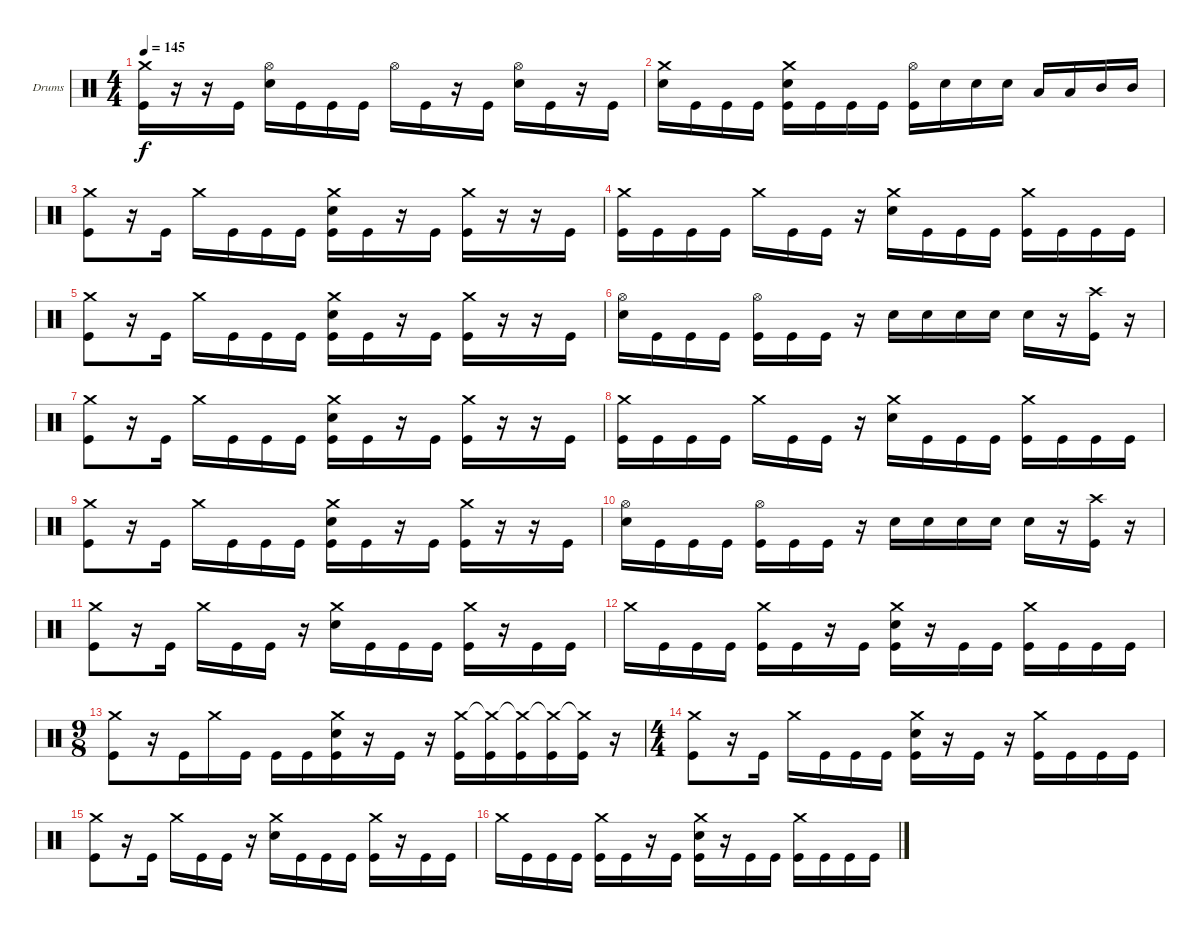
\defaultSystemsLayout 4
\bracketExtendMode groupsimilarinstruments
\firstSystemTrackNameOrientation horizontal
\otherSystemsTrackNameOrientation horizontal
\track ("Moe Carlson" "Drums") {instrument percussion}
\staff {score}
\articulation defaults
\ts (4 4)
\tempo 145
\clef neutral
\ks c
("Crash medium (hit)" "Kick (hit)").16{dy f} r.16 r.16 "Kick (hit)".16 ("Snare (hit) 2" "Hi-Hat (open)").16 "Kick (hit)".16 "Kick (hit)".16 "Kick (hit)".16 "Hi-Hat (open)".16 "Kick (hit)".16 r.16 "Kick (hit)".16 ("Snare (hit) 2" "Hi-Hat (open)").16 "Kick (hit)".16 r.16 "Kick (hit)".16 |
("Crash medium (hit)" "Snare (hit) 2").16 "Kick (hit)".16 "Kick (hit)".16 "Kick (hit)".16 ("Kick (hit)" "Snare (hit) 2" "Crash medium (hit)").16 "Kick (hit)".16 "Kick (hit)".16 "Kick (hit)".16 ("Kick (hit)" "Hi-Hat (open)").16 "Snare (hit) 2".16 "Snare (hit) 2".16 "Snare (hit) 2".16 "Low Tom (hit)".16 "Low Tom (hit)".16 "Mid Tom (hit)".16 "Mid Tom (hit)".16 |
("Crash medium (hit)" "Kick (hit)").8 r.16 "Kick (hit)".16 "Crash medium (hit)".16 "Kick (hit)".16 "Kick (hit)".16 "Kick (hit)".16 ("Kick (hit)" "Crash medium (hit)" "Snare (hit) 2").16 "Kick (hit)".16 r.16 "Kick (hit)".16 ("Kick (hit)" "Crash medium (hit)").16 r.16 r.16 "Kick (hit)".16 |
("Kick (hit)" "Crash medium (hit)").16 "Kick (hit)".16 "Kick (hit)".16 "Kick (hit)".16 "Crash medium (hit)".16 "Kick (hit)".16 "Kick (hit)".16 r.16 ("Snare (hit) 2" "Crash medium (hit)").16 "Kick (hit)".16 "Kick (hit)".16 "Kick (hit)".16 ("Kick (hit)" "Crash medium (hit)").16 "Kick (hit)".16 "Kick (hit)".16 "Kick (hit)".16 |
("Crash medium (hit)" "Kick (hit)").8 r.16 "Kick (hit)".16 "Crash medium (hit)".16 "Kick (hit)".16 "Kick (hit)".16 "Kick (hit)".16 ("Kick (hit)" "Crash medium (hit)" "Snare (hit) 2").16 "Kick (hit)".16 r.16 "Kick (hit)".16 ("Kick (hit)" "Crash medium (hit)").16 r.16 r.16 "Kick (hit)".16 |
("Hi-Hat (open)" "Snare (hit) 2").16 "Kick (hit)".16 "Kick (hit)".16 "Kick (hit)".16 ("Kick (hit)" "Hi-Hat (open)").16 "Kick (hit)".16 "Kick (hit)".16 r.16 "Snare (hit) 2".16 "Snare (hit) 2".16 "Snare (hit) 2".16 "Snare (hit) 2".16 "Snare (hit) 2".16 r.16 ("Crash high (hit)" "Kick (hit)").16 r.16 |
("Crash medium (hit)" "Kick (hit)").8 r.16 "Kick (hit)".16 "Crash medium (hit)".16 "Kick (hit)".16 "Kick (hit)".16 "Kick (hit)".16 ("Kick (hit)" "Crash medium (hit)" "Snare (hit) 2").16 "Kick (hit)".16 r.16 "Kick (hit)".16 ("Kick (hit)" "Crash medium (hit)").16 r.16 r.16 "Kick (hit)".16 |
("Kick (hit)" "Crash medium (hit)").16 "Kick (hit)".16 "Kick (hit)".16 "Kick (hit)".16 "Crash medium (hit)".16 "Kick (hit)".16 "Kick (hit)".16 r.16 ("Snare (hit) 2" "Crash medium (hit)").16 "Kick (hit)".16 "Kick (hit)".16 "Kick (hit)".16 ("Kick (hit)" "Crash medium (hit)").16 "Kick (hit)".16 "Kick (hit)".16 "Kick (hit)".16 |
("Crash medium (hit)" "Kick (hit)").8 r.16 "Kick (hit)".16 "Crash medium (hit)".16 "Kick (hit)".16 "Kick (hit)".16 "Kick (hit)".16 ("Kick (hit)" "Crash medium (hit)" "Snare (hit) 2").16 "Kick (hit)".16 r.16 "Kick (hit)".16 ("Kick (hit)" "Crash medium (hit)").16 r.16 r.16 "Kick (hit)".16 |
("Hi-Hat (open)" "Snare (hit) 2").16 "Kick (hit)".16 "Kick (hit)".16 "Kick (hit)".16 ("Kick (hit)" "Hi-Hat (open)").16 "Kick (hit)".16 "Kick (hit)".16 r.16 "Snare (hit) 2".16 "Snare (hit) 2".16 "Snare (hit) 2".16 "Snare (hit) 2".16 "Snare (hit) 2".16 r.16 ("Crash high (hit)" "Kick (hit)").16 r.16 |
("Crash medium (hit)" "Kick (hit)").8 r.16 "Kick (hit)".16 "Crash medium (hit)".16 "Kick (hit)".16 "Kick (hit)".16 r.16 ("Snare (hit) 2" "Crash medium (hit)").16 "Kick (hit)".16 "Kick (hit)".16 "Kick (hit)".16 ("Kick (hit)" "Crash medium (hit)").16 r.16 "Kick (hit)".16 "Kick (hit)".16 |
"Crash medium (hit)".16 "Kick (hit)".16 "Kick (hit)".16 "Kick (hit)".16 ("Kick (hit)" "Crash medium (hit)").16 "Kick (hit)".16 r.16 "Kick (hit)".16 ("Kick (hit)" "Snare (hit) 2" "Crash medium (hit)").16 r.16 "Kick (hit)".16 "Kick (hit)".16 ("Kick (hit)" "Crash medium (hit)").16 "Kick (hit)".16 "Kick (hit)".16 "Kick (hit)".16 |
\ts (9 8)
("Kick (hit)" "Crash medium (hit)").8 r.16 "Kick (hit)".16 "Crash medium (hit)".16 "Kick (hit)".16 "Kick (hit)".16 "Kick (hit)".16 ("Kick (hit)" "Snare (hit) 2" "Crash medium (hit)").16 r.16 "Kick (hit)".16 r.16 ("Kick (hit)" "Crash medium (hit)").16 ("Kick (hit)" "Crash medium (hit)"{t}).16 ("Kick (hit)" "Crash medium (hit)"{t}).16 ("Kick (hit)" "Crash medium (hit)"{t}).16 ("Kick (hit)" "Crash medium (hit)"{t}).16 r.16 |
\ts (4 4)
("Crash medium (hit)" "Kick (hit)").8 r.16 "Kick (hit)".16 "Crash medium (hit)".16 "Kick (hit)".16 "Kick (hit)".16 "Kick (hit)".16 ("Kick (hit)" "Snare (hit) 2" "Crash medium (hit)").16 r.16 "Kick (hit)".16 r.16 ("Kick (hit)" "Crash medium (hit)").16 "Kick (hit)".16 "Kick (hit)".16 "Kick (hit)".16 |
("Kick (hit)" "Crash medium (hit)").8 r.16 "Kick (hit)".16 "Crash medium (hit)".16 "Kick (hit)".16 "Kick (hit)".16 r.16 ("Snare (hit) 2" "Crash medium (hit)").16 "Kick (hit)".16 "Kick (hit)".16 "Kick (hit)".16 ("Kick (hit)" "Crash medium (hit)").16 r.16 "Kick (hit)".16 "Kick (hit)".16 |
"Crash medium (hit)".16 "Kick (hit)".16 "Kick (hit)".16 "Kick (hit)".16 ("Kick (hit)" "Crash medium (hit)").16 "Kick (hit)".16 r.16 "Kick (hit)".16 ("Kick (hit)" "Snare (hit) 2" "Crash medium (hit)").16 r.16 "Kick (hit)".16 "Kick (hit)".16 ("Kick (hit)" "Crash medium (hit)").16 "Kick (hit)".16 "Kick (hit)".16 "Kick (hit)".16
